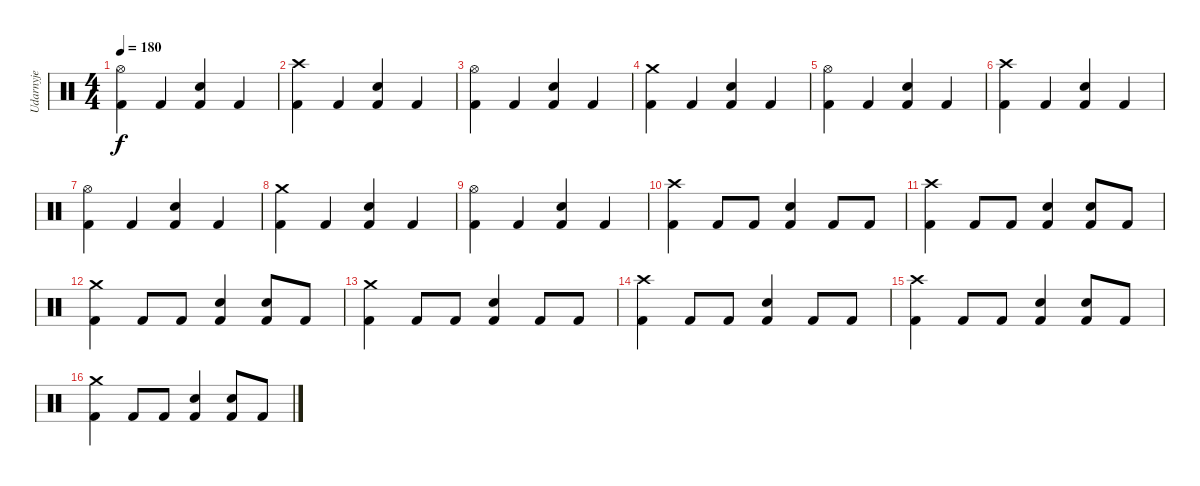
\track ("Udarnyje" "Udarnyje") {instrument percussion}
\staff {score}
\articulation defaults
\ts (4 4)
\tempo 180
\clef neutral
\ks c
("Hi-Hat (open)" "Kick (hit) 2").4{dy f} "Kick (hit) 2".4 ("Electric Snare (hit)" "Kick (hit) 2").4 "Kick (hit) 2".4 |
("Crash high (hit)" "Kick (hit) 2").4 "Kick (hit) 2".4 ("Electric Snare (hit)" "Kick (hit) 2").4 "Kick (hit) 2".4 |
("Hi-Hat (open)" "Kick (hit) 2").4 "Kick (hit) 2".4 ("Electric Snare (hit)" "Kick (hit) 2").4 "Kick (hit) 2".4 |
("Crash medium (hit)" "Kick (hit) 2").4 "Kick (hit) 2".4 ("Electric Snare (hit)" "Kick (hit) 2").4 "Kick (hit) 2".4 |
("Hi-Hat (open)" "Kick (hit) 2").4 "Kick (hit) 2".4 ("Electric Snare (hit)" "Kick (hit) 2").4 "Kick (hit) 2".4 |
("Crash high (hit)" "Kick (hit) 2").4 "Kick (hit) 2".4 ("Electric Snare (hit)" "Kick (hit) 2").4 "Kick (hit) 2".4 |
("Hi-Hat (open)" "Kick (hit) 2").4 "Kick (hit) 2".4 ("Electric Snare (hit)" "Kick (hit) 2").4 "Kick (hit) 2".4 |
("Crash medium (hit)" "Kick (hit) 2").4 "Kick (hit) 2".4 ("Electric Snare (hit)" "Kick (hit) 2").4 "Kick (hit) 2".4 |
("Hi-Hat (open)" "Kick (hit) 2").4 "Kick (hit) 2".4 ("Electric Snare (hit)" "Kick (hit) 2").4 "Kick (hit) 2".4 |
("Crash high (hit)" "Kick (hit) 2").4 "Kick (hit) 2".8 "Kick (hit) 2".8 ("Electric Snare (hit)" "Kick (hit) 2").4 "Kick (hit) 2".8 "Kick (hit) 2".8 |
("Crash high (hit)" "Kick (hit) 2").4 "Kick (hit) 2".8 "Kick (hit) 2".8 ("Electric Snare (hit)" "Kick (hit) 2").4 ("Electric Snare (hit)" "Kick (hit) 2").8 "Kick (hit) 2".8 |
("Crash medium (hit)" "Kick (hit) 2").4 "Kick (hit) 2".8 "Kick (hit) 2".8 ("Electric Snare (hit)" "Kick (hit) 2").4 ("Electric Snare (hit)" "Kick (hit) 2").8 "Kick (hit) 2".8 |
("Crash medium (hit)" "Kick (hit) 2").4 "Kick (hit) 2".8 "Kick (hit) 2".8 ("Electric Snare (hit)" "Kick (hit) 2").4 "Kick (hit) 2".8 "Kick (hit) 2".8 |
("Crash high (hit)" "Kick (hit) 2").4 "Kick (hit) 2".8 "Kick (hit) 2".8 ("Electric Snare (hit)" "Kick (hit) 2").4 "Kick (hit) 2".8 "Kick (hit) 2".8 |
("Crash high (hit)" "Kick (hit) 2").4 "Kick (hit) 2".8 "Kick (hit) 2".8 ("Electric Snare (hit)" "Kick (hit) 2").4 ("Electric Snare (hit)" "Kick (hit) 2").8 "Kick (hit) 2".8 |
("Crash medium (hit)" "Kick (hit) 2").4 "Kick (hit) 2".8 "Kick (hit) 2".8 ("Electric Snare (hit)" "Kick (hit) 2").4 ("Electric Snare (hit)" "Kick (hit) 2").8 "Kick (hit) 2".8
